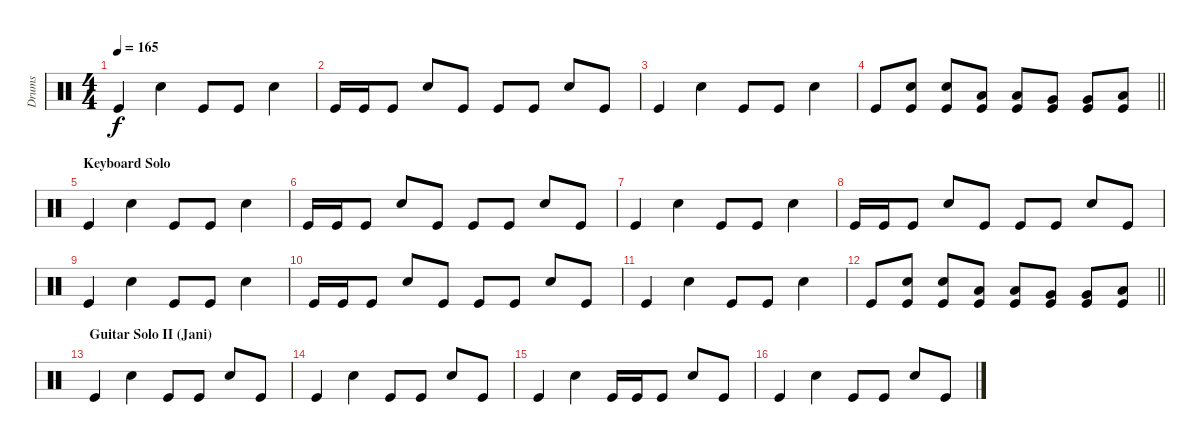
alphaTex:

\track ("Drums" "Drums") {instrument percussion}
\staff {score}
\articulation defaults
\ts (4 4)
\tempo 165
\clef neutral
\ks c "Kick (hit)".4{dy f} "Snare (hit) 2".4 "Kick (hit)".8 "Kick (hit)".8 "Snare (hit) 2".4
|
"Kick (hit)".16 "Kick (hit)".16 "Kick (hit)".8 "Snare (hit) 2".8 "Kick (hit)".8 "Kick (hit)".8 "Kick (hit)".8 "Snare (hit) 2".8 "Kick (hit)".8 |
"Kick (hit)".4 "Snare (hit) 2".4 "Kick (hit)".8 "Kick (hit)".8 "Snare (hit) 2".4 |
\barLineRight lightlight "Kick (hit)".8
("Kick (hit)" "Snare (hit) 2").8 ("Kick (hit)" "Snare (hit) 2").8 ("Kick (hit)" "Low Tom (hit)").8 ("Kick (hit)" "Low Tom (hit)").8 ("Kick (hit)" "Very Low Tom (hit)").8 ("Kick (hit)" "Very Low Tom (hit)").8 ("Kick (hit)" "Low Floor Tom (hit)").8 |
\section ("" "Keyboard Solo")
"Kick (hit)".4 "Snare (hit) 2".4 "Kick (hit)".8 "Kick (hit)".8 "Snare (hit) 2".4 |
"Kick (hit)".16 "Kick (hit)".16 "Kick (hit)".8 "Snare (hit) 2".8 "Kick (hit)".8 "Kick (hit)".8 "Kick (hit)".8 "Snare (hit) 2".8 "Kick (hit)".8 |
"Kick (hit)".4 "Snare (hit) 2".4 "Kick (hit)".8 "Kick (hit)".8 "Snare (hit) 2".4 |
"Kick (hit)".16 "Kick (hit)".16 "Kick (hit)".8 "Snare (hit) 2".8 "Kick (hit)".8 "Kick (hit)".8 "Kick (hit)".8 "Snare (hit) 2".8 "Kick (hit)".8 |
"Kick (hit)".4 "Snare (hit) 2".4 "Kick (hit)".8 "Kick (hit)".8 "Snare (hit) 2".4 |
"Kick (hit)".16 "Kick (hit)".16 "Kick (hit)".8 "Snare (hit) 2".8 "Kick (hit)".8 "Kick (hit)".8 "Kick (hit)".8 "Snare (hit) 2".8 "Kick (hit)".8 |
"Kick (hit)".4 "Snare (hit) 2".4 "Kick (hit)".8 "Kick (hit)".8 "Snare (hit) 2".4 |
\barLineRight lightlight "Kick (hit)".8
("Kick (hit)" "Snare (hit) 2").8 ("Kick (hit)" "Snare (hit) 2").8 ("Kick (hit)" "Low Tom (hit)").8 ("Kick (hit)" "Low Tom (hit)").8 ("Kick (hit)" "Very Low Tom (hit)").8 ("Kick (hit)" "Very Low Tom (hit)").8 ("Kick (hit)" "Low Floor Tom (hit)").8 |
\section ("" "Guitar Solo II (Jani)")
"Kick (hit)".4 "Snare (hit) 2".4 "Kick (hit)".8 "Kick (hit)".8 "Snare (hit) 2".8 "Kick (hit)".8 |
"Kick (hit)".4 "Snare (hit) 2".4 "Kick (hit)".8 "Kick (hit)".8 "Snare (hit) 2".8 "Kick (hit)".8 |
"Kick (hit)".4 "Snare (hit) 2".4 "Kick (hit)".16 "Kick (hit)".16 "Kick (hit)".8 "Snare (hit) 2".8 "Kick (hit)".8 |
"Kick (hit)".4 "Snare (hit) 2".4 "Kick (hit)".8 "Kick (hit)".8 "Snare (hit) 2".8 "Kick (hit)".8
